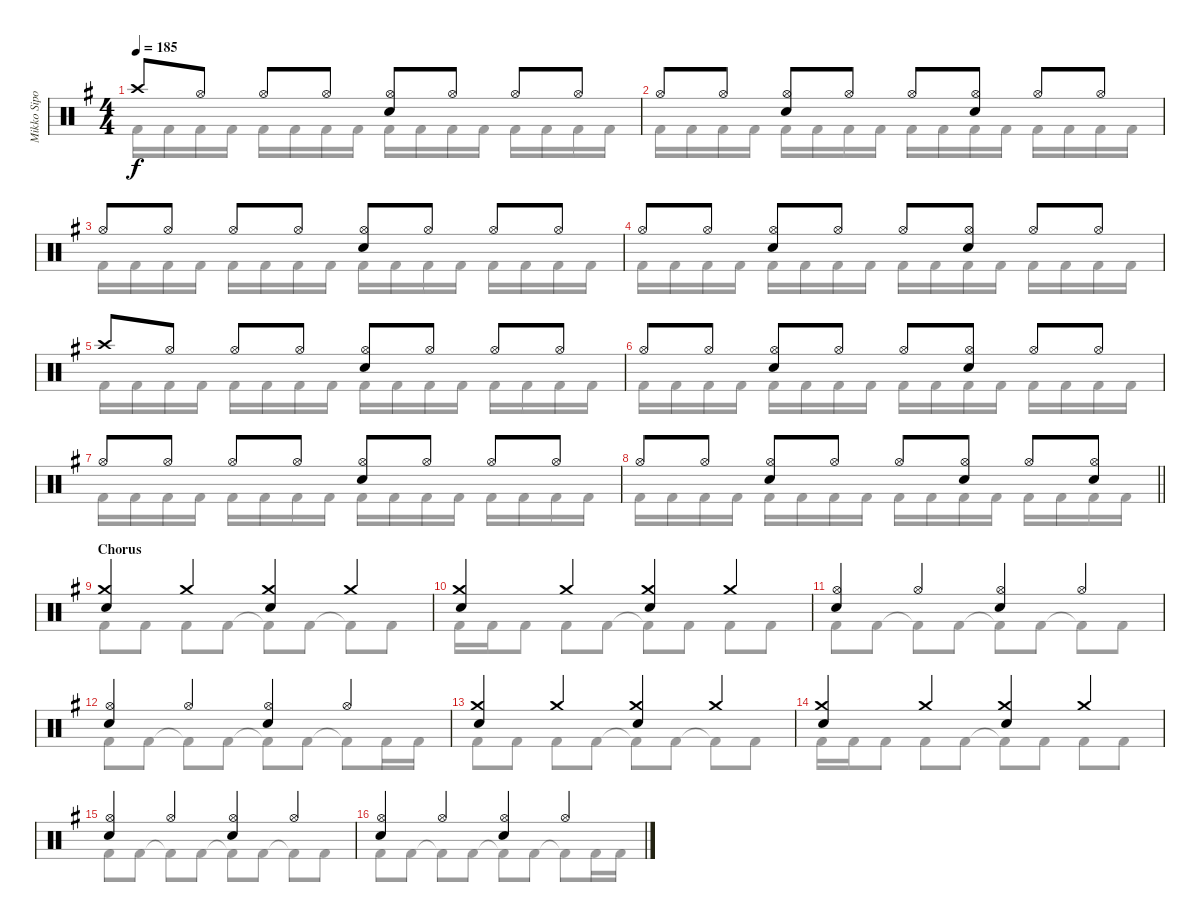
\track ("Mikko Sipola (drums)" "Mikko Sipo") {instrument percussion}
\staff {score}
\articulation defaults
\voice
\ts (4 4)
\tempo 185
\clef neutral
\ks eminor "Crash high (hit)".8{dy f} "Hi-Hat (open)".8 "Hi-Hat (open)".8 "Hi-Hat (open)".8
("Hi-Hat (open)" "Electric Snare (hit)").8 "Hi-Hat (open)".8 "Hi-Hat (open)".8 "Hi-Hat (open)".8 |
"Hi-Hat (open)".8 "Hi-Hat (open)".8 ("Hi-Hat (open)" "Electric Snare (hit)").8 "Hi-Hat (open)".8 "Hi-Hat (open)".8 ("Hi-Hat (open)" "Electric Snare (hit)").8 "Hi-Hat (open)".8 "Hi-Hat (open)".8 |
"Hi-Hat (open)".8 "Hi-Hat (open)".8 "Hi-Hat (open)".8 "Hi-Hat (open)".8 ("Hi-Hat (open)" "Electric Snare (hit)").8 "Hi-Hat (open)".8 "Hi-Hat (open)".8 "Hi-Hat (open)".8 |
"Hi-Hat (open)".8 "Hi-Hat (open)".8 ("Hi-Hat (open)" "Electric Snare (hit)").8 "Hi-Hat (open)".8 "Hi-Hat (open)".8 ("Hi-Hat (open)" "Electric Snare (hit)").8 "Hi-Hat (open)".8 "Hi-Hat (open)".8 |
"Crash high (hit)".8 "Hi-Hat (open)".8 "Hi-Hat (open)".8 "Hi-Hat (open)".8 ("Hi-Hat (open)" "Electric Snare (hit)").8 "Hi-Hat (open)".8 "Hi-Hat (open)".8 "Hi-Hat (open)".8 |
"Hi-Hat (open)".8 "Hi-Hat (open)".8 ("Hi-Hat (open)" "Electric Snare (hit)").8 "Hi-Hat (open)".8 "Hi-Hat (open)".8 ("Hi-Hat (open)" "Electric Snare (hit)").8 "Hi-Hat (open)".8 "Hi-Hat (open)".8 |
"Hi-Hat (open)".8 "Hi-Hat (open)".8 "Hi-Hat (open)".8 "Hi-Hat (open)".8 ("Hi-Hat (open)" "Electric Snare (hit)").8 "Hi-Hat (open)".8 "Hi-Hat (open)".8 "Hi-Hat (open)".8 |
\barLineRight lightlight "Hi-Hat (open)".8 "Hi-Hat (open)".8
("Hi-Hat (open)" "Electric Snare (hit)").8 "Hi-Hat (open)".8 "Hi-Hat (open)".8 ("Hi-Hat (open)" "Electric Snare (hit)").8 "Hi-Hat (open)".8 ("Hi-Hat (open)" "Electric Snare (hit)").8 |
\section ("" "Chorus")
("Crash medium (hit)" "Electric Snare (hit)").4 "Crash medium (hit)".4 ("Crash medium (hit)" "Electric Snare (hit)").4 "Crash medium (hit)".4 |
("Crash medium (hit)" "Electric Snare (hit)").4 "Crash medium (hit)".4 ("Crash medium (hit)" "Electric Snare (hit)").4 "Crash medium (hit)".4 |
("Hi-Hat (open)" "Electric Snare (hit)").4 "Hi-Hat (open)".4 ("Hi-Hat (open)" "Electric Snare (hit)").4 "Hi-Hat (open)".4 |
("Hi-Hat (open)" "Electric Snare (hit)").4 "Hi-Hat (open)".4 ("Hi-Hat (open)" "Electric Snare (hit)").4 "Hi-Hat (open)".4 |
("Crash medium (hit)" "Electric Snare (hit)").4 "Crash medium (hit)".4 ("Crash medium (hit)" "Electric Snare (hit)").4 "Crash medium (hit)".4 |
("Crash medium (hit)" "Electric Snare (hit)").4 "Crash medium (hit)".4 ("Crash medium (hit)" "Electric Snare (hit)").4 "Crash medium (hit)".4 |
("Hi-Hat (open)" "Electric Snare (hit)").4 "Hi-Hat (open)".4 ("Hi-Hat (open)" "Electric Snare (hit)").4 "Hi-Hat (open)".4 |
("Hi-Hat (open)" "Electric Snare (hit)").4 "Hi-Hat (open)".4 ("Hi-Hat (open)" "Electric Snare (hit)").4 "Hi-Hat (open)".4
\voice
\clef neutral
\ottava regular
\simile none
\ks eminor "Kick (hit) 2".16{dy f} "Kick (hit) 2".16 "Kick (hit) 2".16 "Kick (hit) 2".16 "Kick (hit) 2".16 "Kick (hit) 2".16 "Kick (hit) 2".16 "Kick (hit) 2".16 "Kick (hit) 2".16 "Kick (hit) 2".16 "Kick (hit) 2".16 "Kick (hit) 2".16 "Kick (hit) 2".16 "Kick (hit) 2".16 "Kick (hit) 2".16 "Kick (hit) 2".16
|
"Kick (hit) 2".16 "Kick (hit) 2".16 "Kick (hit) 2".16 "Kick (hit) 2".16 "Kick (hit) 2".16 "Kick (hit) 2".16 "Kick (hit) 2".16 "Kick (hit) 2".16 "Kick (hit) 2".16 "Kick (hit) 2".16 "Kick (hit) 2".16 "Kick (hit) 2".16 "Kick (hit) 2".16 "Kick (hit) 2".16 "Kick (hit) 2".16 "Kick (hit) 2".16 |
"Kick (hit) 2".16 "Kick (hit) 2".16 "Kick (hit) 2".16 "Kick (hit) 2".16 "Kick (hit) 2".16 "Kick (hit) 2".16 "Kick (hit) 2".16 "Kick (hit) 2".16 "Kick (hit) 2".16 "Kick (hit) 2".16 "Kick (hit) 2".16 "Kick (hit) 2".16 "Kick (hit) 2".16 "Kick (hit) 2".16 "Kick (hit) 2".16 "Kick (hit) 2".16 |
"Kick (hit) 2".16 "Kick (hit) 2".16 "Kick (hit) 2".16 "Kick (hit) 2".16 "Kick (hit) 2".16 "Kick (hit) 2".16 "Kick (hit) 2".16 "Kick (hit) 2".16 "Kick (hit) 2".16 "Kick (hit) 2".16 "Kick (hit) 2".16 "Kick (hit) 2".16 "Kick (hit) 2".16 "Kick (hit) 2".16 "Kick (hit) 2".16 "Kick (hit) 2".16 |
"Kick (hit) 2".16 "Kick (hit) 2".16 "Kick (hit) 2".16 "Kick (hit) 2".16 "Kick (hit) 2".16 "Kick (hit) 2".16 "Kick (hit) 2".16 "Kick (hit) 2".16 "Kick (hit) 2".16 "Kick (hit) 2".16 "Kick (hit) 2".16 "Kick (hit) 2".16 "Kick (hit) 2".16 "Kick (hit) 2".16 "Kick (hit) 2".16 "Kick (hit) 2".16 |
"Kick (hit) 2".16 "Kick (hit) 2".16 "Kick (hit) 2".16 "Kick (hit) 2".16 "Kick (hit) 2".16 "Kick (hit) 2".16 "Kick (hit) 2".16 "Kick (hit) 2".16 "Kick (hit) 2".16 "Kick (hit) 2".16 "Kick (hit) 2".16 "Kick (hit) 2".16 "Kick (hit) 2".16 "Kick (hit) 2".16 "Kick (hit) 2".16 "Kick (hit) 2".16 |
"Kick (hit) 2".16 "Kick (hit) 2".16 "Kick (hit) 2".16 "Kick (hit) 2".16 "Kick (hit) 2".16 "Kick (hit) 2".16 "Kick (hit) 2".16 "Kick (hit) 2".16 "Kick (hit) 2".16 "Kick (hit) 2".16 "Kick (hit) 2".16 "Kick (hit) 2".16 "Kick (hit) 2".16 "Kick (hit) 2".16 "Kick (hit) 2".16 "Kick (hit) 2".16 |
\barLineRight lightlight "Kick (hit) 2".16 "Kick (hit) 2".16 "Kick (hit) 2".16 "Kick (hit) 2".16 "Kick (hit) 2".16 "Kick (hit) 2".16 "Kick (hit) 2".16 "Kick (hit) 2".16 "Kick (hit) 2".16 "Kick (hit) 2".16 "Kick (hit) 2".16 "Kick (hit) 2".16 "Kick (hit) 2".16 "Kick (hit) 2".16 "Kick (hit) 2".16 "Kick (hit) 2".16
|
"Kick (hit) 2".8 "Kick (hit) 2".8 "Kick (hit) 2".8 "Kick (hit) 2".8 "Kick (hit) 2"{t}.8 "Kick (hit) 2".8 "Kick (hit) 2"{t}.8 "Kick (hit) 2".8 |
"Kick (hit) 2".16 "Kick (hit) 2".16 "Kick (hit) 2".8 "Kick (hit) 2".8 "Kick (hit) 2".8 "Kick (hit) 2"{t}.8 "Kick (hit) 2".8 "Kick (hit) 2".8 "Kick (hit) 2".8 |
"Kick (hit) 2".8 "Kick (hit) 2".8 "Kick (hit) 2"{t}.8 "Kick (hit) 2".8 "Kick (hit) 2"{t}.8 "Kick (hit) 2".8 "Kick (hit) 2"{t}.8 "Kick (hit) 2".8 |
"Kick (hit) 2".8 "Kick (hit) 2".8 "Kick (hit) 2"{t}.8 "Kick (hit) 2".8 "Kick (hit) 2"{t}.8 "Kick (hit) 2".8 "Kick (hit) 2"{t}.8 "Kick (hit) 2".16 "Kick (hit) 2".16 |
"Kick (hit) 2".8 "Kick (hit) 2".8 "Kick (hit) 2".8 "Kick (hit) 2".8 "Kick (hit) 2"{t}.8 "Kick (hit) 2".8 "Kick (hit) 2"{t}.8 "Kick (hit) 2".8 |
"Kick (hit) 2".16 "Kick (hit) 2".16 "Kick (hit) 2".8 "Kick (hit) 2".8 "Kick (hit) 2".8 "Kick (hit) 2"{t}.8 "Kick (hit) 2".8 "Kick (hit) 2".8 "Kick (hit) 2".8 |
"Kick (hit) 2".8 "Kick (hit) 2".8 "Kick (hit) 2"{t}.8 "Kick (hit) 2".8 "Kick (hit) 2"{t}.8 "Kick (hit) 2".8 "Kick (hit) 2"{t}.8 "Kick (hit) 2".8 |
"Kick (hit) 2".8 "Kick (hit) 2".8 "Kick (hit) 2"{t}.8 "Kick (hit) 2".8 "Kick (hit) 2"{t}.8 "Kick (hit) 2".8 "Kick (hit) 2"{t}.8 "Kick (hit) 2".16 "Kick (hit) 2".16
